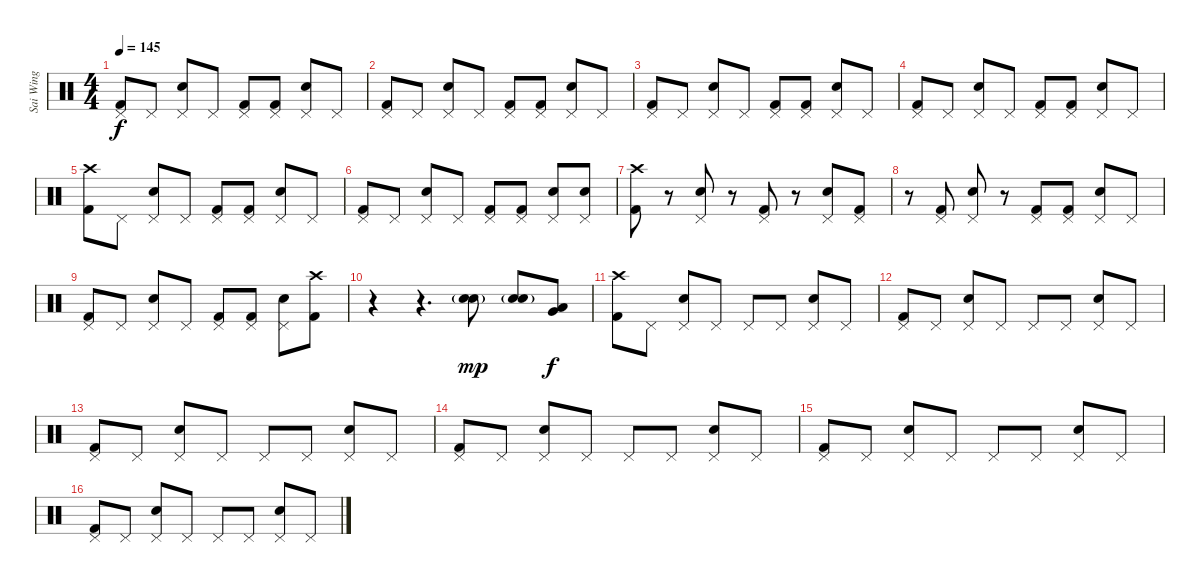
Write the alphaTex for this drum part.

\track ("Sai Wing" "Sai Wing") {instrument percussion}
\staff {score}
\articulation defaults
\ts (4 4)
\tempo 145
\clef neutral
\ks c
("Pedal Hi-Hat (hit)" "Kick (hit) 2").8{dy f} "Pedal Hi-Hat (hit)".8 ("Pedal Hi-Hat (hit)" "Snare (hit) 2").8 "Pedal Hi-Hat (hit)".8 ("Pedal Hi-Hat (hit)" "Kick (hit) 2").8 ("Pedal Hi-Hat (hit)" "Kick (hit) 2").8 ("Pedal Hi-Hat (hit)" "Snare (hit) 2").8 "Pedal Hi-Hat (hit)".8 |
("Pedal Hi-Hat (hit)" "Kick (hit) 2").8 "Pedal Hi-Hat (hit)".8 ("Pedal Hi-Hat (hit)" "Snare (hit) 2").8 "Pedal Hi-Hat (hit)".8 ("Pedal Hi-Hat (hit)" "Kick (hit) 2").8 ("Pedal Hi-Hat (hit)" "Kick (hit) 2").8 ("Pedal Hi-Hat (hit)" "Snare (hit) 2").8 "Pedal Hi-Hat (hit)".8 |
("Pedal Hi-Hat (hit)" "Kick (hit) 2").8 "Pedal Hi-Hat (hit)".8 ("Pedal Hi-Hat (hit)" "Snare (hit) 2").8 "Pedal Hi-Hat (hit)".8 ("Pedal Hi-Hat (hit)" "Kick (hit) 2").8 ("Pedal Hi-Hat (hit)" "Kick (hit) 2").8 ("Pedal Hi-Hat (hit)" "Snare (hit) 2").8 "Pedal Hi-Hat (hit)".8 |
("Pedal Hi-Hat (hit)" "Kick (hit) 2").8 "Pedal Hi-Hat (hit)".8 ("Pedal Hi-Hat (hit)" "Snare (hit) 2").8 "Pedal Hi-Hat (hit)".8 ("Pedal Hi-Hat (hit)" "Kick (hit) 2").8 ("Pedal Hi-Hat (hit)" "Kick (hit) 2").8 ("Pedal Hi-Hat (hit)" "Snare (hit) 2").8 "Pedal Hi-Hat (hit)".8 |
("Crash high (hit)" "Kick (hit) 2").8 "Pedal Hi-Hat (hit)".8 ("Pedal Hi-Hat (hit)" "Snare (hit) 2").8 "Pedal Hi-Hat (hit)".8 ("Pedal Hi-Hat (hit)" "Kick (hit) 2").8 ("Pedal Hi-Hat (hit)" "Kick (hit) 2").8 ("Pedal Hi-Hat (hit)" "Snare (hit) 2").8 "Pedal Hi-Hat (hit)".8 |
("Pedal Hi-Hat (hit)" "Kick (hit) 2").8 "Pedal Hi-Hat (hit)".8 ("Pedal Hi-Hat (hit)" "Snare (hit) 2").8 "Pedal Hi-Hat (hit)".8 ("Pedal Hi-Hat (hit)" "Kick (hit) 2").8 ("Pedal Hi-Hat (hit)" "Kick (hit) 2").8 ("Pedal Hi-Hat (hit)" "Snare (hit) 2").8 ("Pedal Hi-Hat (hit)" "Snare (hit) 2").8 |
("Crash high (hit)" "Kick (hit) 2").8 r.8 ("Pedal Hi-Hat (hit)" "Snare (hit) 2").8 r.8 ("Pedal Hi-Hat (hit)" "Kick (hit) 2").8 r.8 ("Pedal Hi-Hat (hit)" "Snare (hit) 2").8 ("Pedal Hi-Hat (hit)" "Kick (hit) 2").8 |
r.8 ("Pedal Hi-Hat (hit)" "Kick (hit) 2").8 ("Pedal Hi-Hat (hit)" "Snare (hit) 2").8 r.8 ("Pedal Hi-Hat (hit)" "Kick (hit) 2").8 ("Pedal Hi-Hat (hit)" "Kick (hit) 2").8 ("Pedal Hi-Hat (hit)" "Snare (hit) 2").8 "Pedal Hi-Hat (hit)".8 |
("Pedal Hi-Hat (hit)" "Kick (hit) 2").8 "Pedal Hi-Hat (hit)".8 ("Pedal Hi-Hat (hit)" "Snare (hit) 2").8 "Pedal Hi-Hat (hit)".8 ("Pedal Hi-Hat (hit)" "Kick (hit) 2").8 ("Pedal Hi-Hat (hit)" "Kick (hit) 2").8 ("Pedal Hi-Hat (hit)" "Snare (hit) 2").8 ("Crash high (hit)" "Kick (hit) 2").8 |
r.4 r.4{d} ("Snare (hit) 2"{g} "Snare (hit) 2").8{dy mp} ("Snare (hit) 2"{g} "Snare (hit) 2").8 ("Very Low Tom (hit)" "Low Tom (hit)").8{dy f} |
("Crash high (hit)" "Kick (hit) 2").8 "Pedal Hi-Hat (hit)".8 ("Pedal Hi-Hat (hit)" "Snare (hit) 2").8 "Pedal Hi-Hat (hit)".8 "Pedal Hi-Hat (hit)".8 "Pedal Hi-Hat (hit)".8 ("Pedal Hi-Hat (hit)" "Snare (hit) 2").8 "Pedal Hi-Hat (hit)".8 |
("Pedal Hi-Hat (hit)" "Kick (hit) 2").8 "Pedal Hi-Hat (hit)".8 ("Pedal Hi-Hat (hit)" "Snare (hit) 2").8 "Pedal Hi-Hat (hit)".8 "Pedal Hi-Hat (hit)".8 "Pedal Hi-Hat (hit)".8 ("Pedal Hi-Hat (hit)" "Snare (hit) 2").8 "Pedal Hi-Hat (hit)".8 |
("Pedal Hi-Hat (hit)" "Kick (hit) 2").8 "Pedal Hi-Hat (hit)".8 ("Pedal Hi-Hat (hit)" "Snare (hit) 2").8 "Pedal Hi-Hat (hit)".8 "Pedal Hi-Hat (hit)".8 "Pedal Hi-Hat (hit)".8 ("Pedal Hi-Hat (hit)" "Snare (hit) 2").8 "Pedal Hi-Hat (hit)".8 |
("Pedal Hi-Hat (hit)" "Kick (hit) 2").8 "Pedal Hi-Hat (hit)".8 ("Pedal Hi-Hat (hit)" "Snare (hit) 2").8 "Pedal Hi-Hat (hit)".8 "Pedal Hi-Hat (hit)".8 "Pedal Hi-Hat (hit)".8 ("Pedal Hi-Hat (hit)" "Snare (hit) 2").8 "Pedal Hi-Hat (hit)".8 |
("Pedal Hi-Hat (hit)" "Kick (hit) 2").8 "Pedal Hi-Hat (hit)".8 ("Pedal Hi-Hat (hit)" "Snare (hit) 2").8 "Pedal Hi-Hat (hit)".8 "Pedal Hi-Hat (hit)".8 "Pedal Hi-Hat (hit)".8 ("Pedal Hi-Hat (hit)" "Snare (hit) 2").8 "Pedal Hi-Hat (hit)".8 |
("Pedal Hi-Hat (hit)" "Kick (hit) 2").8 "Pedal Hi-Hat (hit)".8 ("Pedal Hi-Hat (hit)" "Snare (hit) 2").8 "Pedal Hi-Hat (hit)".8 "Pedal Hi-Hat (hit)".8 "Pedal Hi-Hat (hit)".8 ("Pedal Hi-Hat (hit)" "Snare (hit) 2").8 "Pedal Hi-Hat (hit)".8
